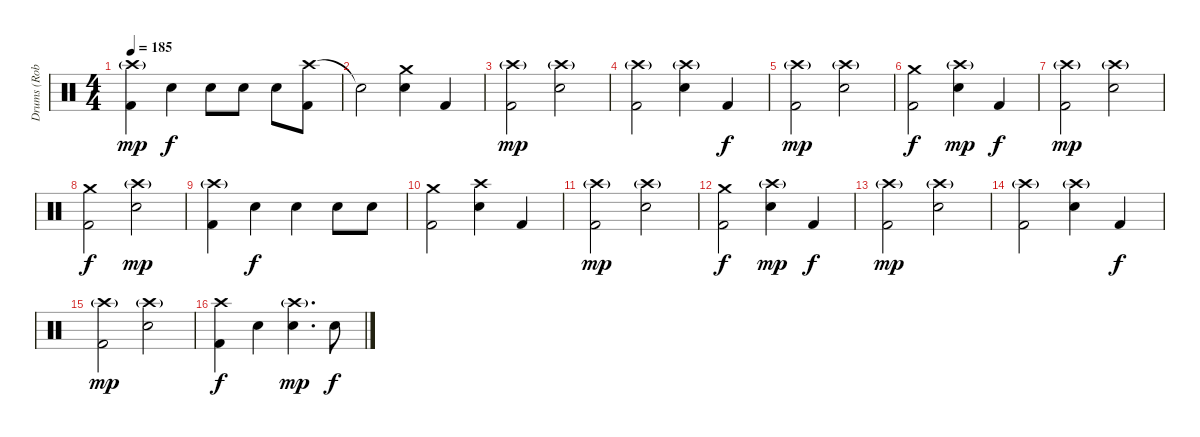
\track ("Drums (Robert Ortiz)" "Drums (Rob") {instrument percussion}
\staff {score}
\articulation defaults
\ts (4 4)
\tempo 185
\clef neutral
\ks c
("Crash high (hit)"{g} "Kick (hit) 2").4{dy mp} "Electric Snare (hit)".4{dy f} "Electric Snare (hit)".8 "Electric Snare (hit)".8 "Electric Snare (hit)".8 ("Crash high (hit)" "Kick (hit) 2").8 |
"Snare (hit)"{t}.2 ("Crash medium (hit)" "Electric Snare (hit)").4 "Kick (hit) 2".4 |
("Crash high (hit)"{g} "Kick (hit) 2").2{dy mp} ("Crash high (hit)"{g} "Electric Snare (hit)").2 |
("Crash high (hit)"{g} "Kick (hit) 2").2 ("Crash high (hit)"{g} "Electric Snare (hit)").4 "Kick (hit) 2".4{dy f} |
("Crash high (hit)"{g} "Kick (hit) 2").2{dy mp} ("Crash high (hit)"{g} "Electric Snare (hit)").2 |
("Crash medium (hit)" "Kick (hit) 2").2{dy f} ("Crash high (hit)"{g} "Electric Snare (hit)").4{dy mp} "Kick (hit) 2".4{dy f} |
("Crash high (hit)"{g} "Kick (hit) 2").2{dy mp} ("Crash high (hit)"{g} "Electric Snare (hit)").2 |
("Crash medium (hit)" "Kick (hit) 2").2{dy f} ("Crash high (hit)"{g} "Electric Snare (hit)").2{dy mp} |
("Crash high (hit)"{g} "Kick (hit) 2").4 "Electric Snare (hit)".4{dy f} "Electric Snare (hit)".4 "Electric Snare (hit)".8 "Electric Snare (hit)".8 |
("Crash medium (hit)" "Kick (hit) 2").2 ("Crash high (hit)" "Electric Snare (hit)").4 "Kick (hit) 2".4 |
("Crash high (hit)"{g} "Kick (hit) 2").2{dy mp} ("Crash high (hit)"{g} "Electric Snare (hit)").2 |
("Crash medium (hit)" "Kick (hit) 2").2{dy f} ("Crash high (hit)"{g} "Electric Snare (hit)").4{dy mp} "Kick (hit) 2".4{dy f} |
("Crash high (hit)"{g} "Kick (hit) 2").2{dy mp} ("Crash high (hit)"{g} "Electric Snare (hit)").2 |
("Crash high (hit)"{g} "Kick (hit) 2").2 ("Crash high (hit)"{g} "Electric Snare (hit)").4 "Kick (hit) 2".4{dy f} |
("Crash high (hit)"{g} "Kick (hit) 2").2{dy mp} ("Crash high (hit)"{g} "Electric Snare (hit)").2 |
("Crash high (hit)" "Kick (hit) 2").4{dy f} "Electric Snare (hit)".4 ("Crash high (hit)"{g} "Electric Snare (hit)").4{d dy mp} "Electric Snare (hit)".8{dy f}
